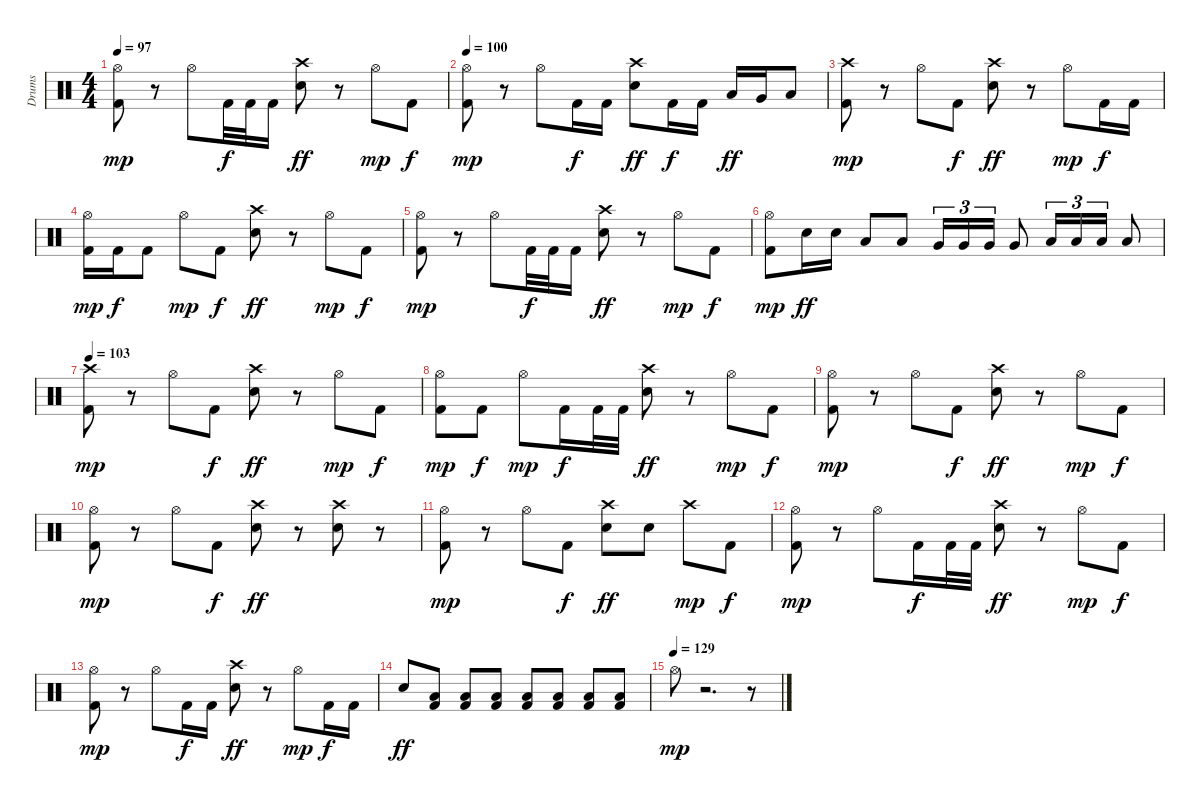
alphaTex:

\track ("Drums" "Drums") {instrument percussion}
\staff {score}
\articulation defaults
\ts (4 4)
\tempo 97
\clef neutral
\ks c
("Hi-Hat (open)" "Kick (hit) 2").8{dy mp} r.8 "Hi-Hat (open)".8 "Kick (hit) 2".32{dy f} "Kick (hit) 2".32 "Kick (hit) 2".16 ("Crash high (hit)" "Electric Snare (hit)").8{dy ff} r.8 "Hi-Hat (open)".8{dy mp} "Kick (hit) 2".8{dy f} |
\tempo 100
("Hi-Hat (open)" "Kick (hit) 2").8{dy mp} r.8 "Hi-Hat (open)".8 "Kick (hit) 2".16{dy f} "Kick (hit) 2".16 ("Crash high (hit)" "Electric Snare (hit)").8{dy ff} "Kick (hit) 2".16{dy f} "Kick (hit) 2".16 "Low Tom (hit)".16{dy ff} "Very Low Tom (hit)".16 "Low Floor Tom (hit)".8 |
("Crash high (hit)" "Kick (hit) 2").8{dy mp} r.8 "Hi-Hat (open)".8 "Kick (hit) 2".8{dy f} ("Crash high (hit)" "Electric Snare (hit)").8{dy ff} r.8 "Hi-Hat (open)".8{dy mp} "Kick (hit) 2".16{dy f} "Kick (hit) 2".16 |
("Hi-Hat (open)" "Kick (hit) 2").16{dy mp} "Kick (hit) 2".16{dy f} "Kick (hit) 2".8 "Hi-Hat (open)".8{dy mp} "Kick (hit) 2".8{dy f} ("Crash high (hit)" "Electric Snare (hit)").8{dy ff} r.8 "Hi-Hat (open)".8{dy mp} "Kick (hit) 2".8{dy f} |
("Hi-Hat (open)" "Kick (hit) 2").8{dy mp} r.8 "Hi-Hat (open)".8 "Kick (hit) 2".32{dy f} "Kick (hit) 2".32 "Kick (hit) 2".16 ("Crash high (hit)" "Electric Snare (hit)").8{dy ff} r.8 "Hi-Hat (open)".8{dy mp} "Kick (hit) 2".8{dy f} |
("Hi-Hat (open)" "Kick (hit) 2").8{dy mp} "Electric Snare (hit)".16{dy ff} "Electric Snare (hit)".16 "Low Tom (hit)".8 "Low Tom (hit)".8 "Very Low Tom (hit)".16{tu (3 2)} "Very Low Tom (hit)".16{tu (3 2)} "Very Low Tom (hit)".16{tu (3 2)} "Very Low Tom (hit)".8 "Low Floor Tom (hit)".16{tu (3 2)} "Low Floor Tom (hit)".16{tu (3 2)} "Low Floor Tom (hit)".16{tu (3 2)} "Low Floor Tom (hit)".8 |
\tempo 103
("Crash high (hit)" "Kick (hit) 2").8{dy mp} r.8 "Hi-Hat (open)".8 "Kick (hit) 2".8{dy f} ("Crash high (hit)" "Electric Snare (hit)").8{dy ff} r.8 "Hi-Hat (open)".8{dy mp} "Kick (hit) 2".8{dy f} |
("Hi-Hat (open)" "Kick (hit) 2").8{dy mp} "Kick (hit) 2".8{dy f} "Hi-Hat (open)".8{dy mp} "Kick (hit) 2".16{dy f} "Kick (hit) 2".32 "Kick (hit) 2".32 ("Crash high (hit)" "Electric Snare (hit)").8{dy ff} r.8 "Hi-Hat (open)".8{dy mp} "Kick (hit) 2".8{dy f} |
("Hi-Hat (open)" "Kick (hit) 2").8{dy mp} r.8 "Hi-Hat (open)".8 "Kick (hit) 2".8{dy f} ("Crash high (hit)" "Electric Snare (hit)").8{dy ff} r.8 "Hi-Hat (open)".8{dy mp} "Kick (hit) 2".8{dy f} |
("Hi-Hat (open)" "Kick (hit) 2").8{dy mp} r.8 "Hi-Hat (open)".8 "Kick (hit) 2".8{dy f} ("Crash high (hit)" "Electric Snare (hit)").8{dy ff} r.8 ("Crash high (hit)" "Electric Snare (hit)").8 r.8 |
("Hi-Hat (open)" "Kick (hit) 2").8{dy mp} r.8 "Hi-Hat (open)".8 "Kick (hit) 2".8{dy f} ("Crash high (hit)" "Electric Snare (hit)").8{dy ff} "Electric Snare (hit)".8 "Crash high (hit)".8{dy mp} "Kick (hit) 2".8{dy f} |
("Hi-Hat (open)" "Kick (hit) 2").8{dy mp} r.8 "Hi-Hat (open)".8 "Kick (hit) 2".16{dy f} "Kick (hit) 2".32 "Kick (hit) 2".32 ("Crash high (hit)" "Electric Snare (hit)").8{dy ff} r.8 "Hi-Hat (open)".8{dy mp} "Kick (hit) 2".8{dy f} |
("Hi-Hat (open)" "Kick (hit) 2").8{dy mp} r.8 "Hi-Hat (open)".8 "Kick (hit) 2".16{dy f} "Kick (hit) 2".16 ("Crash high (hit)" "Electric Snare (hit)").8{dy ff} r.8 "Hi-Hat (open)".8{dy mp} "Kick (hit) 2".16{dy f} "Kick (hit) 2".16 |
"Electric Snare (hit)".8{dy ff} ("Low Floor Tom (hit)" "Kick (hit) 2").8 ("Low Floor Tom (hit)" "Kick (hit) 2").8 ("Low Floor Tom (hit)" "Kick (hit) 2").8 ("Low Floor Tom (hit)" "Kick (hit) 2").8 ("Low Floor Tom (hit)" "Kick (hit) 2").8 ("Low Floor Tom (hit)" "Kick (hit) 2").8 ("Low Floor Tom (hit)" "Kick (hit) 2").8 |
\tempo (129)
"Hi-Hat (open)".8{dy mp} r.2{d} r.8
